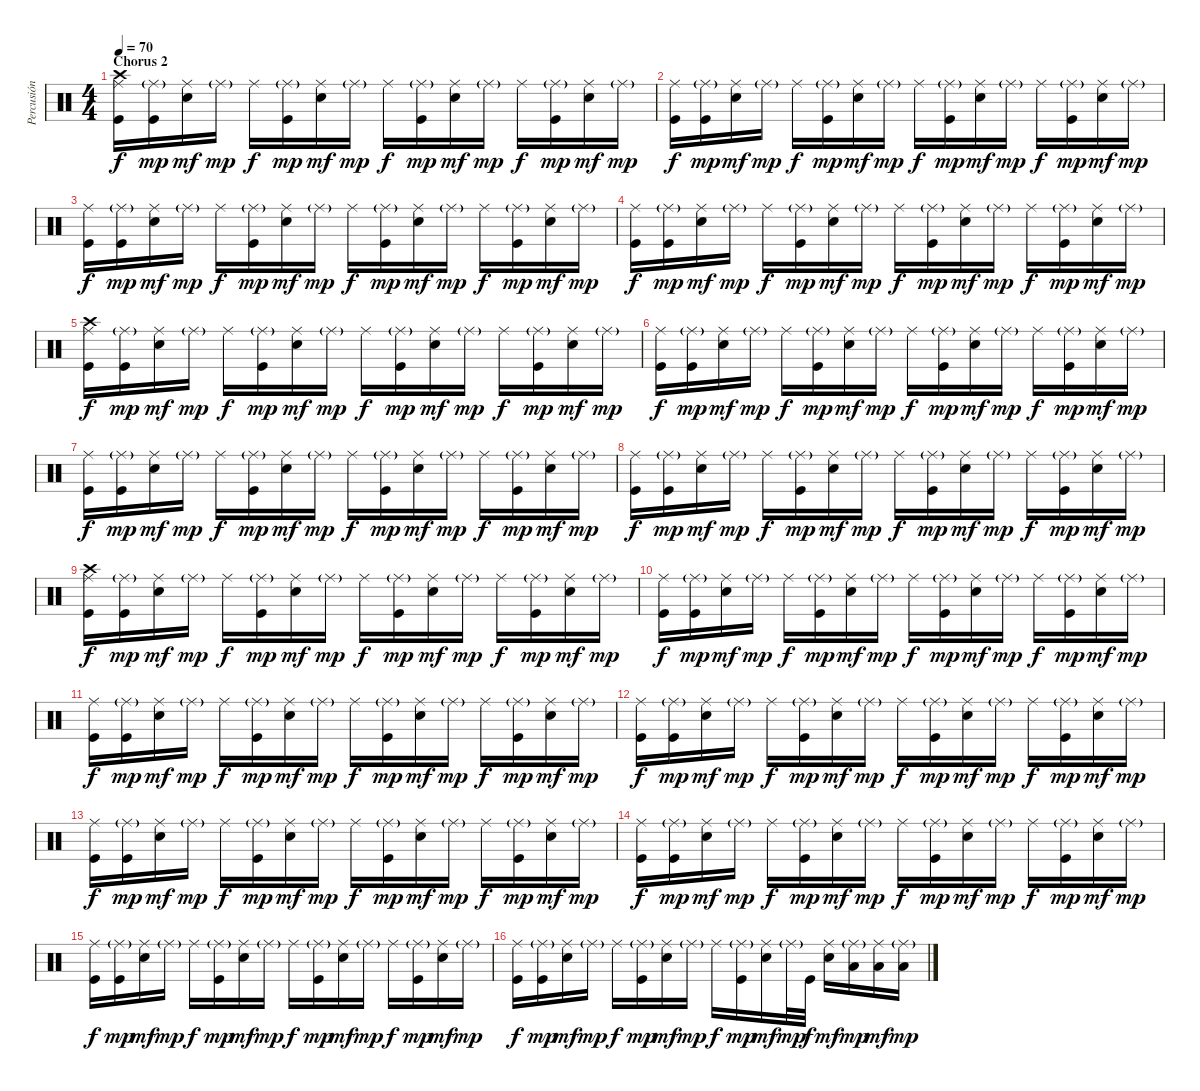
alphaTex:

\track ("Percusión" "Percusión") {instrument percussion}
\staff {score}
\articulation defaults
\ts (4 4)
\section ("" "Chorus 2")
\tempo 70
\clef neutral
\ks c
("Ride (middle)" "Kick (hit)" "Crash high (hit)").16{dy f} ("Ride (middle)"{g} "Kick (hit)").16{dy mp} ("Ride (middle)" "Snare (hit) 2").16{dy mf} "Ride (middle)"{g}.16{dy mp} "Ride (middle)".16{dy f} ("Ride (middle)"{g} "Kick (hit)").16{dy mp} ("Ride (middle)" "Snare (hit) 2").16{dy mf} "Ride (middle)"{g}.16{dy mp} "Ride (middle)".16{dy f} ("Ride (middle)"{g} "Kick (hit)").16{dy mp} ("Ride (middle)" "Snare (hit) 2").16{dy mf} "Ride (middle)"{g}.16{dy mp} "Ride (middle)".16{dy f} ("Ride (middle)"{g} "Kick (hit)").16{dy mp} ("Ride (middle)" "Snare (hit) 2").16{dy mf} "Ride (middle)"{g}.16{dy mp} |
("Ride (middle)" "Kick (hit)").16{dy f} ("Ride (middle)"{g} "Kick (hit)").16{dy mp} ("Ride (middle)" "Snare (hit) 2").16{dy mf} "Ride (middle)"{g}.16{dy mp} "Ride (middle)".16{dy f} ("Ride (middle)"{g} "Kick (hit)").16{dy mp} ("Ride (middle)" "Snare (hit) 2").16{dy mf} "Ride (middle)"{g}.16{dy mp} "Ride (middle)".16{dy f} ("Ride (middle)"{g} "Kick (hit)").16{dy mp} ("Ride (middle)" "Snare (hit) 2").16{dy mf} "Ride (middle)"{g}.16{dy mp} "Ride (middle)".16{dy f} ("Ride (middle)"{g} "Kick (hit)").16{dy mp} ("Ride (middle)" "Snare (hit) 2").16{dy mf} "Ride (middle)"{g}.16{dy mp} |
("Ride (middle)" "Kick (hit)").16{dy f} ("Ride (middle)"{g} "Kick (hit)").16{dy mp} ("Ride (middle)" "Snare (hit) 2").16{dy mf} "Ride (middle)"{g}.16{dy mp} "Ride (middle)".16{dy f} ("Ride (middle)"{g} "Kick (hit)").16{dy mp} ("Ride (middle)" "Snare (hit) 2").16{dy mf} "Ride (middle)"{g}.16{dy mp} "Ride (middle)".16{dy f} ("Ride (middle)"{g} "Kick (hit)").16{dy mp} ("Ride (middle)" "Snare (hit) 2").16{dy mf} "Ride (middle)"{g}.16{dy mp} "Ride (middle)".16{dy f} ("Ride (middle)"{g} "Kick (hit)").16{dy mp} ("Ride (middle)" "Snare (hit) 2").16{dy mf} "Ride (middle)"{g}.16{dy mp} |
("Ride (middle)" "Kick (hit)").16{dy f} ("Ride (middle)"{g} "Kick (hit)").16{dy mp} ("Ride (middle)" "Snare (hit) 2").16{dy mf} "Ride (middle)"{g}.16{dy mp} "Ride (middle)".16{dy f} ("Ride (middle)"{g} "Kick (hit)").16{dy mp} ("Ride (middle)" "Snare (hit) 2").16{dy mf} "Ride (middle)"{g}.16{dy mp} "Ride (middle)".16{dy f} ("Ride (middle)"{g} "Kick (hit)").16{dy mp} ("Ride (middle)" "Snare (hit) 2").16{dy mf} "Ride (middle)"{g}.16{dy mp} "Ride (middle)".16{dy f} ("Ride (middle)"{g} "Kick (hit)").16{dy mp} ("Ride (middle)" "Snare (hit) 2").16{dy mf} "Ride (middle)"{g}.16{dy mp} |
("Ride (middle)" "Kick (hit)" "Crash high (hit)").16{dy f} ("Ride (middle)"{g} "Kick (hit)").16{dy mp} ("Ride (middle)" "Snare (hit) 2").16{dy mf} "Ride (middle)"{g}.16{dy mp} "Ride (middle)".16{dy f} ("Ride (middle)"{g} "Kick (hit)").16{dy mp} ("Ride (middle)" "Snare (hit) 2").16{dy mf} "Ride (middle)"{g}.16{dy mp} "Ride (middle)".16{dy f} ("Ride (middle)"{g} "Kick (hit)").16{dy mp} ("Ride (middle)" "Snare (hit) 2").16{dy mf} "Ride (middle)"{g}.16{dy mp} "Ride (middle)".16{dy f} ("Ride (middle)"{g} "Kick (hit)").16{dy mp} ("Ride (middle)" "Snare (hit) 2").16{dy mf} "Ride (middle)"{g}.16{dy mp} |
("Ride (middle)" "Kick (hit)").16{dy f} ("Ride (middle)"{g} "Kick (hit)").16{dy mp} ("Ride (middle)" "Snare (hit) 2").16{dy mf} "Ride (middle)"{g}.16{dy mp} "Ride (middle)".16{dy f} ("Ride (middle)"{g} "Kick (hit)").16{dy mp} ("Ride (middle)" "Snare (hit) 2").16{dy mf} "Ride (middle)"{g}.16{dy mp} "Ride (middle)".16{dy f} ("Ride (middle)"{g} "Kick (hit)").16{dy mp} ("Ride (middle)" "Snare (hit) 2").16{dy mf} "Ride (middle)"{g}.16{dy mp} "Ride (middle)".16{dy f} ("Ride (middle)"{g} "Kick (hit)").16{dy mp} ("Ride (middle)" "Snare (hit) 2").16{dy mf} "Ride (middle)"{g}.16{dy mp} |
("Ride (middle)" "Kick (hit)").16{dy f} ("Ride (middle)"{g} "Kick (hit)").16{dy mp} ("Ride (middle)" "Snare (hit) 2").16{dy mf} "Ride (middle)"{g}.16{dy mp} "Ride (middle)".16{dy f} ("Ride (middle)"{g} "Kick (hit)").16{dy mp} ("Ride (middle)" "Snare (hit) 2").16{dy mf} "Ride (middle)"{g}.16{dy mp} "Ride (middle)".16{dy f} ("Ride (middle)"{g} "Kick (hit)").16{dy mp} ("Ride (middle)" "Snare (hit) 2").16{dy mf} "Ride (middle)"{g}.16{dy mp} "Ride (middle)".16{dy f} ("Ride (middle)"{g} "Kick (hit)").16{dy mp} ("Ride (middle)" "Snare (hit) 2").16{dy mf} "Ride (middle)"{g}.16{dy mp} |
("Ride (middle)" "Kick (hit)").16{dy f} ("Ride (middle)"{g} "Kick (hit)").16{dy mp} ("Ride (middle)" "Snare (hit) 2").16{dy mf} "Ride (middle)"{g}.16{dy mp} "Ride (middle)".16{dy f} ("Ride (middle)"{g} "Kick (hit)").16{dy mp} ("Ride (middle)" "Snare (hit) 2").16{dy mf} "Ride (middle)"{g}.16{dy mp} "Ride (middle)".16{dy f} ("Ride (middle)"{g} "Kick (hit)").16{dy mp} ("Ride (middle)" "Snare (hit) 2").16{dy mf} "Ride (middle)"{g}.16{dy mp} "Ride (middle)".16{dy f} ("Ride (middle)"{g} "Kick (hit)").16{dy mp} ("Ride (middle)" "Snare (hit) 2").16{dy mf} "Ride (middle)"{g}.16{dy mp} |
("Ride (middle)" "Kick (hit)" "Crash high (hit)").16{dy f} ("Ride (middle)"{g} "Kick (hit)").16{dy mp} ("Ride (middle)" "Snare (hit) 2").16{dy mf} "Ride (middle)"{g}.16{dy mp} "Ride (middle)".16{dy f} ("Ride (middle)"{g} "Kick (hit)").16{dy mp} ("Ride (middle)" "Snare (hit) 2").16{dy mf} "Ride (middle)"{g}.16{dy mp} "Ride (middle)".16{dy f} ("Ride (middle)"{g} "Kick (hit)").16{dy mp} ("Ride (middle)" "Snare (hit) 2").16{dy mf} "Ride (middle)"{g}.16{dy mp} "Ride (middle)".16{dy f} ("Ride (middle)"{g} "Kick (hit)").16{dy mp} ("Ride (middle)" "Snare (hit) 2").16{dy mf} "Ride (middle)"{g}.16{dy mp} |
("Ride (middle)" "Kick (hit)").16{dy f} ("Ride (middle)"{g} "Kick (hit)").16{dy mp} ("Ride (middle)" "Snare (hit) 2").16{dy mf} "Ride (middle)"{g}.16{dy mp} "Ride (middle)".16{dy f} ("Ride (middle)"{g} "Kick (hit)").16{dy mp} ("Ride (middle)" "Snare (hit) 2").16{dy mf} "Ride (middle)"{g}.16{dy mp} "Ride (middle)".16{dy f} ("Ride (middle)"{g} "Kick (hit)").16{dy mp} ("Ride (middle)" "Snare (hit) 2").16{dy mf} "Ride (middle)"{g}.16{dy mp} "Ride (middle)".16{dy f} ("Ride (middle)"{g} "Kick (hit)").16{dy mp} ("Ride (middle)" "Snare (hit) 2").16{dy mf} "Ride (middle)"{g}.16{dy mp} |
("Ride (middle)" "Kick (hit)").16{dy f} ("Ride (middle)"{g} "Kick (hit)").16{dy mp} ("Ride (middle)" "Snare (hit) 2").16{dy mf} "Ride (middle)"{g}.16{dy mp} "Ride (middle)".16{dy f} ("Ride (middle)"{g} "Kick (hit)").16{dy mp} ("Ride (middle)" "Snare (hit) 2").16{dy mf} "Ride (middle)"{g}.16{dy mp} "Ride (middle)".16{dy f} ("Ride (middle)"{g} "Kick (hit)").16{dy mp} ("Ride (middle)" "Snare (hit) 2").16{dy mf} "Ride (middle)"{g}.16{dy mp} "Ride (middle)".16{dy f} ("Ride (middle)"{g} "Kick (hit)").16{dy mp} ("Ride (middle)" "Snare (hit) 2").16{dy mf} "Ride (middle)"{g}.16{dy mp} |
("Ride (middle)" "Kick (hit)").16{dy f} ("Ride (middle)"{g} "Kick (hit)").16{dy mp} ("Ride (middle)" "Snare (hit) 2").16{dy mf} "Ride (middle)"{g}.16{dy mp} "Ride (middle)".16{dy f} ("Ride (middle)"{g} "Kick (hit)").16{dy mp} ("Ride (middle)" "Snare (hit) 2").16{dy mf} "Ride (middle)"{g}.16{dy mp} "Ride (middle)".16{dy f} ("Ride (middle)"{g} "Kick (hit)").16{dy mp} ("Ride (middle)" "Snare (hit) 2").16{dy mf} "Ride (middle)"{g}.16{dy mp} "Ride (middle)".16{dy f} ("Ride (middle)"{g} "Kick (hit)").16{dy mp} ("Ride (middle)" "Snare (hit) 2").16{dy mf} "Ride (middle)"{g}.16{dy mp} |
("Ride (middle)" "Kick (hit)").16{dy f} ("Ride (middle)"{g} "Kick (hit)").16{dy mp} ("Ride (middle)" "Snare (hit) 2").16{dy mf} "Ride (middle)"{g}.16{dy mp} "Ride (middle)".16{dy f} ("Ride (middle)"{g} "Kick (hit)").16{dy mp} ("Ride (middle)" "Snare (hit) 2").16{dy mf} "Ride (middle)"{g}.16{dy mp} "Ride (middle)".16{dy f} ("Ride (middle)"{g} "Kick (hit)").16{dy mp} ("Ride (middle)" "Snare (hit) 2").16{dy mf} "Ride (middle)"{g}.16{dy mp} "Ride (middle)".16{dy f} ("Ride (middle)"{g} "Kick (hit)").16{dy mp} ("Ride (middle)" "Snare (hit) 2").16{dy mf} "Ride (middle)"{g}.16{dy mp} |
("Ride (middle)" "Kick (hit)").16{dy f} ("Ride (middle)"{g} "Kick (hit)").16{dy mp} ("Ride (middle)" "Snare (hit) 2").16{dy mf} "Ride (middle)"{g}.16{dy mp} "Ride (middle)".16{dy f} ("Ride (middle)"{g} "Kick (hit)").16{dy mp} ("Ride (middle)" "Snare (hit) 2").16{dy mf} "Ride (middle)"{g}.16{dy mp} "Ride (middle)".16{dy f} ("Ride (middle)"{g} "Kick (hit)").16{dy mp} ("Ride (middle)" "Snare (hit) 2").16{dy mf} "Ride (middle)"{g}.16{dy mp} "Ride (middle)".16{dy f} ("Ride (middle)"{g} "Kick (hit)").16{dy mp} ("Ride (middle)" "Snare (hit) 2").16{dy mf} "Ride (middle)"{g}.16{dy mp} |
("Ride (middle)" "Kick (hit)").16{dy f} ("Ride (middle)"{g} "Kick (hit)").16{dy mp} ("Ride (middle)" "Snare (hit) 2").16{dy mf} "Ride (middle)"{g}.16{dy mp} "Ride (middle)".16{dy f} ("Ride (middle)"{g} "Kick (hit)").16{dy mp} ("Ride (middle)" "Snare (hit) 2").16{dy mf} "Ride (middle)"{g}.16{dy mp} "Ride (middle)".16{dy f} ("Ride (middle)"{g} "Kick (hit)").16{dy mp} ("Ride (middle)" "Snare (hit) 2").16{dy mf} "Ride (middle)"{g}.16{dy mp} "Ride (middle)".16{dy f} ("Ride (middle)"{g} "Kick (hit)").16{dy mp} ("Ride (middle)" "Snare (hit) 2").16{dy mf} "Ride (middle)"{g}.16{dy mp} |
("Ride (middle)" "Kick (hit)").16{dy f} ("Ride (middle)"{g} "Kick (hit)").16{dy mp} ("Ride (middle)" "Snare (hit) 2").16{dy mf} "Ride (middle)"{g}.16{dy mp} "Ride (middle)".16{dy f} ("Ride (middle)"{g} "Kick (hit)").16{dy mp} ("Ride (middle)" "Snare (hit) 2").16{dy mf} "Ride (middle)"{g}.16{dy mp} "Ride (middle)".16{dy f} ("Ride (middle)"{g} "Kick (hit)").16{dy mp} ("Ride (middle)" "Snare (hit) 2").16{dy mf} "Ride (middle)"{g}.32{dy mp} "Kick (hit)".32{dy f} ("Ride (middle)" "Snare (hit) 2").16{dy mf} ("Ride (middle)"{g} "Low Tom (hit)").16{dy mp} ("Ride (middle)" "Low Tom (hit)").16{dy mf} ("Ride (middle)"{g} "Low Tom (hit)").16{dy mp}
